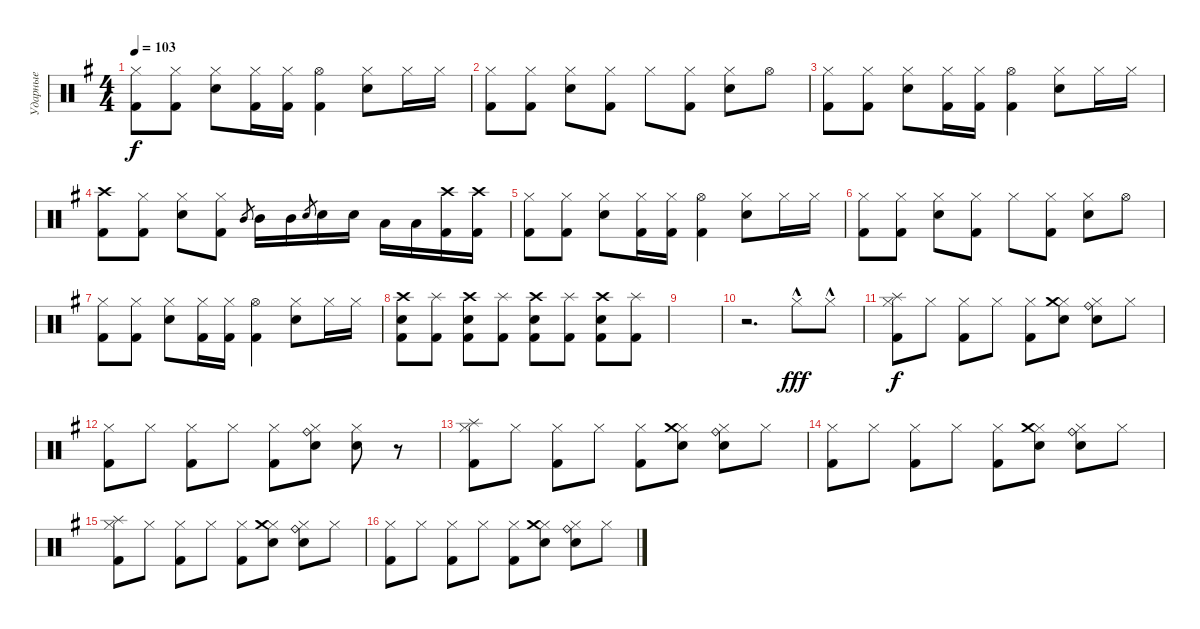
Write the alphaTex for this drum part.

\track ("Ударные" "Ударные") {instrument percussion}
\staff {score}
\articulation defaults
\ts (4 4)
\tempo 103
\clef neutral
\ks eminor
("Hi-Hat (closed)" "Kick (hit) 2").8{dy f} ("Hi-Hat (closed)" "Kick (hit) 2").8 ("Hi-Hat (closed)" "Snare (hit) 2").8 ("Hi-Hat (closed)" "Kick (hit) 2").16 ("Hi-Hat (closed)" "Kick (hit) 2").16 ("Hi-Hat (open)" "Kick (hit) 2").4 ("Hi-Hat (closed)" "Snare (hit) 2").8 "Hi-Hat (closed)".16 "Hi-Hat (closed)".16 |
("Hi-Hat (closed)" "Kick (hit) 2").8 ("Hi-Hat (closed)" "Kick (hit) 2").8 ("Hi-Hat (closed)" "Snare (hit) 2").8 ("Hi-Hat (closed)" "Kick (hit) 2").8 "Hi-Hat (closed)".8 ("Hi-Hat (closed)" "Kick (hit) 2").8 ("Hi-Hat (closed)" "Snare (hit) 2").8 "Hi-Hat (open)".8 |
("Hi-Hat (closed)" "Kick (hit) 2").8 ("Hi-Hat (closed)" "Kick (hit) 2").8 ("Hi-Hat (closed)" "Snare (hit) 2").8 ("Hi-Hat (closed)" "Kick (hit) 2").16 ("Hi-Hat (closed)" "Kick (hit) 2").16 ("Hi-Hat (open)" "Kick (hit) 2").4 ("Hi-Hat (closed)" "Snare (hit) 2").8 "Hi-Hat (closed)".16 "Hi-Hat (closed)".16 |
("Crash high (hit)" "Kick (hit) 2").8 ("Hi-Hat (closed)" "Kick (hit) 2").8 ("Hi-Hat (closed)" "Snare (hit) 2").8 ("Hi-Hat (closed)" "Kick (hit) 2").8 "Mid Tom (hit)".8{gr} "Mid Tom (hit)".16 "Mid Tom (hit)".16 "Snare (hit) 2".8{gr} "Snare (hit) 2".16 "Snare (hit) 2".16 "Low Tom (hit)".16 "Low Tom (hit)".16 ("Crash high (hit)" "Kick (hit) 2").16 ("Crash high (hit)" "Kick (hit) 2").16 |
("Hi-Hat (closed)" "Kick (hit) 2").8 ("Hi-Hat (closed)" "Kick (hit) 2").8 ("Hi-Hat (closed)" "Snare (hit) 2").8 ("Hi-Hat (closed)" "Kick (hit) 2").16 ("Hi-Hat (closed)" "Kick (hit) 2").16 ("Hi-Hat (open)" "Kick (hit) 2").4 ("Hi-Hat (closed)" "Snare (hit) 2").8 "Hi-Hat (closed)".16 "Hi-Hat (closed)".16 |
("Hi-Hat (closed)" "Kick (hit) 2").8 ("Hi-Hat (closed)" "Kick (hit) 2").8 ("Hi-Hat (closed)" "Snare (hit) 2").8 ("Hi-Hat (closed)" "Kick (hit) 2").8 "Hi-Hat (closed)".8 ("Hi-Hat (closed)" "Kick (hit) 2").8 ("Hi-Hat (closed)" "Snare (hit) 2").8 "Hi-Hat (open)".8 |
("Hi-Hat (closed)" "Kick (hit) 2").8 ("Hi-Hat (closed)" "Kick (hit) 2").8 ("Hi-Hat (closed)" "Snare (hit) 2").8 ("Hi-Hat (closed)" "Kick (hit) 2").16 ("Hi-Hat (closed)" "Kick (hit) 2").16 ("Hi-Hat (open)" "Kick (hit) 2").4 ("Hi-Hat (closed)" "Snare (hit) 2").8 "Hi-Hat (closed)".16 "Hi-Hat (closed)".16 |
("Crash high (hit)" "Snare (hit) 2" "Kick (hit) 2").8 ("Splash (hit)" "Kick (hit) 2").8 ("Crash high (hit)" "Snare (hit) 2" "Kick (hit) 2").8 ("Splash (hit)" "Kick (hit) 2").8 ("Crash high (hit)" "Snare (hit) 2" "Kick (hit) 2").8 ("Splash (hit)" "Kick (hit) 2").8 ("Crash high (hit)" "Snare (hit) 2" "Kick (hit) 2").8 ("Splash (hit)" "Kick (hit) 2").8 |
|
r.2{d} "Hi-Hat (closed)"{hac}.8{dy fff} "Hi-Hat (closed)"{hac}.8 |
("Hi-Hat (closed)" "Splash (hit)" "Kick (hit) 2").8{dy f} "Hi-Hat (closed)".8 ("Hi-Hat (closed)" "Kick (hit) 2").8 "Hi-Hat (closed)".8 ("Hi-Hat (closed)" "Kick (hit) 2").8 ("Hi-Hat (closed)" "Crash medium (hit)" "Snare (hit) 2").8 ("Hi-Hat (closed)" "Ride (bell)" "Snare (hit) 2").8 "Hi-Hat (closed)".8 |
("Hi-Hat (closed)" "Kick (hit) 2").8 "Hi-Hat (closed)".8 ("Hi-Hat (closed)" "Kick (hit) 2").8 "Hi-Hat (closed)".8 ("Hi-Hat (closed)" "Kick (hit) 2").8 ("Hi-Hat (closed)" "Ride (bell)" "Snare (hit) 2").8 ("Hi-Hat (closed)" "Snare (hit) 2").8 r.8 |
("Hi-Hat (closed)" "Splash (hit)" "Kick (hit) 2").8 "Hi-Hat (closed)".8 ("Hi-Hat (closed)" "Kick (hit) 2").8 "Hi-Hat (closed)".8 ("Hi-Hat (closed)" "Kick (hit) 2").8 ("Hi-Hat (closed)" "Crash medium (hit)" "Snare (hit) 2").8 ("Hi-Hat (closed)" "Ride (bell)" "Snare (hit) 2").8 "Hi-Hat (closed)".8 |
("Hi-Hat (closed)" "Kick (hit) 2").8 "Hi-Hat (closed)".8 ("Hi-Hat (closed)" "Kick (hit) 2").8 "Hi-Hat (closed)".8 ("Hi-Hat (closed)" "Kick (hit) 2").8 ("Hi-Hat (closed)" "Crash medium (hit)" "Snare (hit) 2").8 ("Hi-Hat (closed)" "Ride (bell)" "Snare (hit) 2").8 "Hi-Hat (closed)".8 |
("Hi-Hat (closed)" "Splash (hit)" "Kick (hit) 2").8 "Hi-Hat (closed)".8 ("Hi-Hat (closed)" "Kick (hit) 2").8 "Hi-Hat (closed)".8 ("Hi-Hat (closed)" "Kick (hit) 2").8 ("Hi-Hat (closed)" "Crash medium (hit)" "Snare (hit) 2").8 ("Hi-Hat (closed)" "Ride (bell)" "Snare (hit) 2").8 "Hi-Hat (closed)".8 |
("Hi-Hat (closed)" "Kick (hit) 2").8 "Hi-Hat (closed)".8 ("Hi-Hat (closed)" "Kick (hit) 2").8 "Hi-Hat (closed)".8 ("Hi-Hat (closed)" "Kick (hit) 2").8 ("Hi-Hat (closed)" "Crash medium (hit)" "Snare (hit) 2").8 ("Hi-Hat (closed)" "Ride (bell)" "Snare (hit) 2").8 "Hi-Hat (closed)".8
